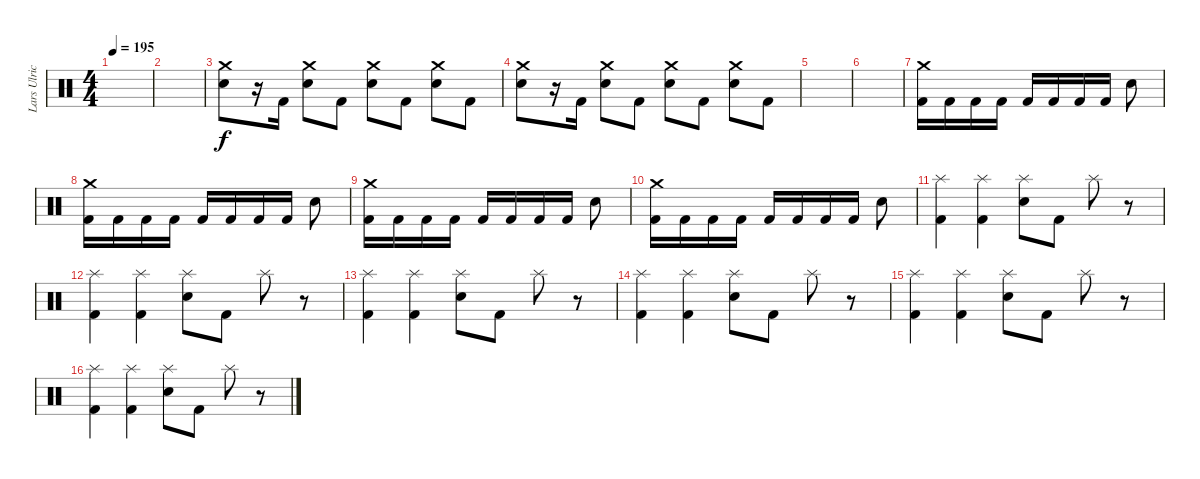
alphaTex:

\track ("Lars Ulrich" "Lars Ulric") {instrument percussion}
\staff {score}
\articulation defaults
\ts (4 4)
\tempo 195
\clef neutral
\ks c
|
|
("Crash medium (hit)" "Electric Snare (hit)").8 r.16 "Kick (hit) 2".16 ("Crash medium (hit)" "Electric Snare (hit)").8 "Kick (hit) 2".8 ("Crash medium (hit)" "Electric Snare (hit)").8 "Kick (hit) 2".8 ("Crash medium (hit)" "Electric Snare (hit)").8 "Kick (hit) 2".8 |
("Crash medium (hit)" "Electric Snare (hit)").8 r.16 "Kick (hit) 2".16 ("Crash medium (hit)" "Electric Snare (hit)").8 "Kick (hit) 2".8 ("Crash medium (hit)" "Electric Snare (hit)").8 "Kick (hit) 2".8 ("Crash medium (hit)" "Electric Snare (hit)").8 "Kick (hit) 2".8 |
|
|
("Crash medium (hit)" "Kick (hit) 2").16 "Kick (hit) 2".16 "Kick (hit) 2".16 "Kick (hit) 2".16 "Kick (hit) 2".16 "Kick (hit) 2".16 "Kick (hit) 2".16 "Kick (hit) 2".16 "Electric Snare (hit)".8 |
("Crash medium (hit)" "Kick (hit) 2").16 "Kick (hit) 2".16 "Kick (hit) 2".16 "Kick (hit) 2".16 "Kick (hit) 2".16 "Kick (hit) 2".16 "Kick (hit) 2".16 "Kick (hit) 2".16 "Electric Snare (hit)".8 |
("Crash medium (hit)" "Kick (hit) 2").16 "Kick (hit) 2".16 "Kick (hit) 2".16 "Kick (hit) 2".16 "Kick (hit) 2".16 "Kick (hit) 2".16 "Kick (hit) 2".16 "Kick (hit) 2".16 "Electric Snare (hit)".8 |
("Crash medium (hit)" "Kick (hit) 2").16 "Kick (hit) 2".16 "Kick (hit) 2".16 "Kick (hit) 2".16 "Kick (hit) 2".16 "Kick (hit) 2".16 "Kick (hit) 2".16 "Kick (hit) 2".16 "Electric Snare (hit)".8 |
("Splash (hit)" "Kick (hit) 2").4 ("Splash (hit)" "Kick (hit) 2").4 ("Splash (hit)" "Electric Snare (hit)").8 "Kick (hit) 2".8 "Splash (hit)".8 r.8 |
("Splash (hit)" "Kick (hit) 2").4 ("Splash (hit)" "Kick (hit) 2").4 ("Splash (hit)" "Electric Snare (hit)").8 "Kick (hit) 2".8 "Splash (hit)".8 r.8 |
("Splash (hit)" "Kick (hit) 2").4 ("Splash (hit)" "Kick (hit) 2").4 ("Splash (hit)" "Electric Snare (hit)").8 "Kick (hit) 2".8 "Splash (hit)".8 r.8 |
("Splash (hit)" "Kick (hit) 2").4 ("Splash (hit)" "Kick (hit) 2").4 ("Splash (hit)" "Electric Snare (hit)").8 "Kick (hit) 2".8 "Splash (hit)".8 r.8 |
("Splash (hit)" "Kick (hit) 2").4 ("Splash (hit)" "Kick (hit) 2").4 ("Splash (hit)" "Electric Snare (hit)").8 "Kick (hit) 2".8 "Splash (hit)".8 r.8 |
("Splash (hit)" "Kick (hit) 2").4 ("Splash (hit)" "Kick (hit) 2").4 ("Splash (hit)" "Electric Snare (hit)").8 "Kick (hit) 2".8 "Splash (hit)".8 r.8
